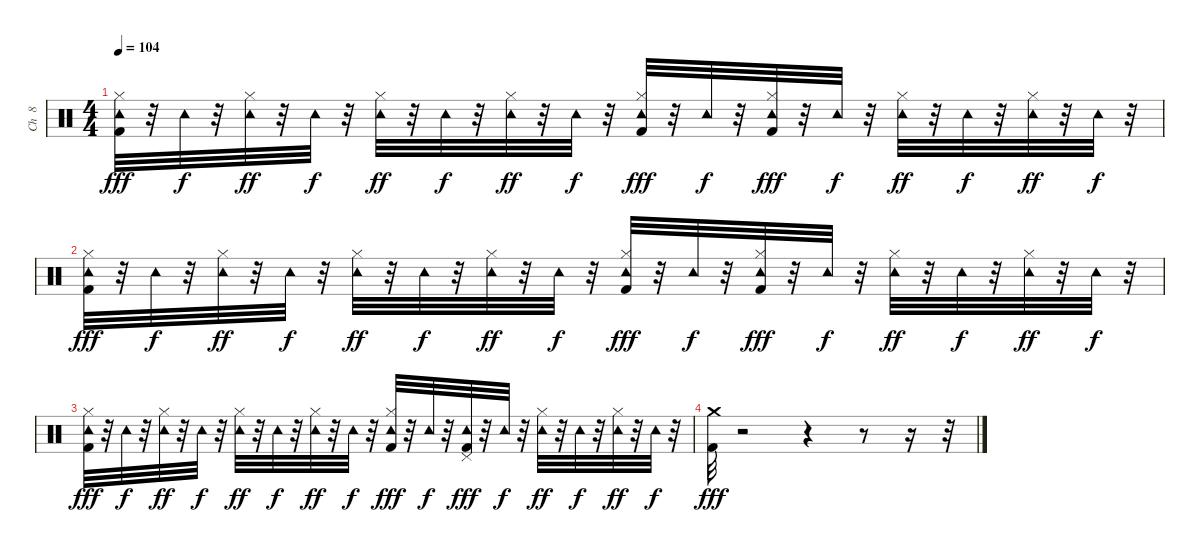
\track ("Ch  8   " "Ch  8   ") {instrument percussion}
\staff {score}
\articulation defaults
\ts (4 4)
\tempo 104
\clef neutral
\ks c
("Tambourine (hit)" "Hi-Hat (closed)" "Kick (hit) 2").32{dy fff} r.32 "Tambourine (hit)".32{dy f} r.32 ("Tambourine (hit)" "Hi-Hat (closed)").32{dy ff} r.32 "Tambourine (hit)".32{dy f} r.32 ("Tambourine (hit)" "Hi-Hat (closed)").32{dy ff} r.32 "Tambourine (hit)".32{dy f} r.32 ("Tambourine (hit)" "Hi-Hat (closed)").32{dy ff} r.32 "Tambourine (hit)".32{dy f} r.32 ("Tambourine (hit)" "Hi-Hat (closed)" "Kick (hit) 2").32{dy fff} r.32 "Tambourine (hit)".32{dy f} r.32 ("Tambourine (hit)" "Hi-Hat (closed)" "Kick (hit) 2").32{dy fff} r.32 "Tambourine (hit)".32{dy f} r.32 ("Tambourine (hit)" "Hi-Hat (closed)").32{dy ff} r.32 "Tambourine (hit)".32{dy f} r.32 ("Tambourine (hit)" "Hi-Hat (closed)").32{dy ff} r.32 "Tambourine (hit)".32{dy f} r.32 |
("Tambourine (hit)" "Hi-Hat (closed)" "Kick (hit) 2").32{dy fff} r.32 "Tambourine (hit)".32{dy f} r.32 ("Tambourine (hit)" "Hi-Hat (closed)").32{dy ff} r.32 "Tambourine (hit)".32{dy f} r.32 ("Tambourine (hit)" "Hi-Hat (closed)").32{dy ff} r.32 "Tambourine (hit)".32{dy f} r.32 ("Tambourine (hit)" "Hi-Hat (closed)").32{dy ff} r.32 "Tambourine (hit)".32{dy f} r.32 ("Tambourine (hit)" "Hi-Hat (closed)" "Kick (hit) 2").32{dy fff} r.32 "Tambourine (hit)".32{dy f} r.32 ("Tambourine (hit)" "Hi-Hat (closed)" "Kick (hit) 2").32{dy fff} r.32 "Tambourine (hit)".32{dy f} r.32 ("Tambourine (hit)" "Hi-Hat (closed)").32{dy ff} r.32 "Tambourine (hit)".32{dy f} r.32 ("Tambourine (hit)" "Hi-Hat (closed)").32{dy ff} r.32 "Tambourine (hit)".32{dy f} r.32 |
("Tambourine (hit)" "Hi-Hat (closed)" "Kick (hit) 2").32{dy fff} r.32 "Tambourine (hit)".32{dy f} r.32 ("Tambourine (hit)" "Hi-Hat (closed)").32{dy ff} r.32 "Tambourine (hit)".32{dy f} r.32 ("Tambourine (hit)" "Hi-Hat (closed)").32{dy ff} r.32 "Tambourine (hit)".32{dy f} r.32 ("Tambourine (hit)" "Hi-Hat (closed)").32{dy ff} r.32 "Tambourine (hit)".32{dy f} r.32 ("Tambourine (hit)" "Hi-Hat (closed)" "Kick (hit) 2").32{dy fff} r.32 "Tambourine (hit)".32{dy f} r.32 ("Pedal Hi-Hat (hit)" "Tambourine (hit)" "Kick (hit) 2").32{dy fff} r.32 "Tambourine (hit)".32{dy f} r.32 ("Tambourine (hit)" "Hi-Hat (closed)").32{dy ff} r.32 "Tambourine (hit)".32{dy f} r.32 ("Tambourine (hit)" "Hi-Hat (closed)").32{dy ff} r.32 "Tambourine (hit)".32{dy f} r.32 |
("Crash medium (hit)" "Kick (hit) 2").32{dy fff} r.2 r.4 r.8 r.16 r.32
